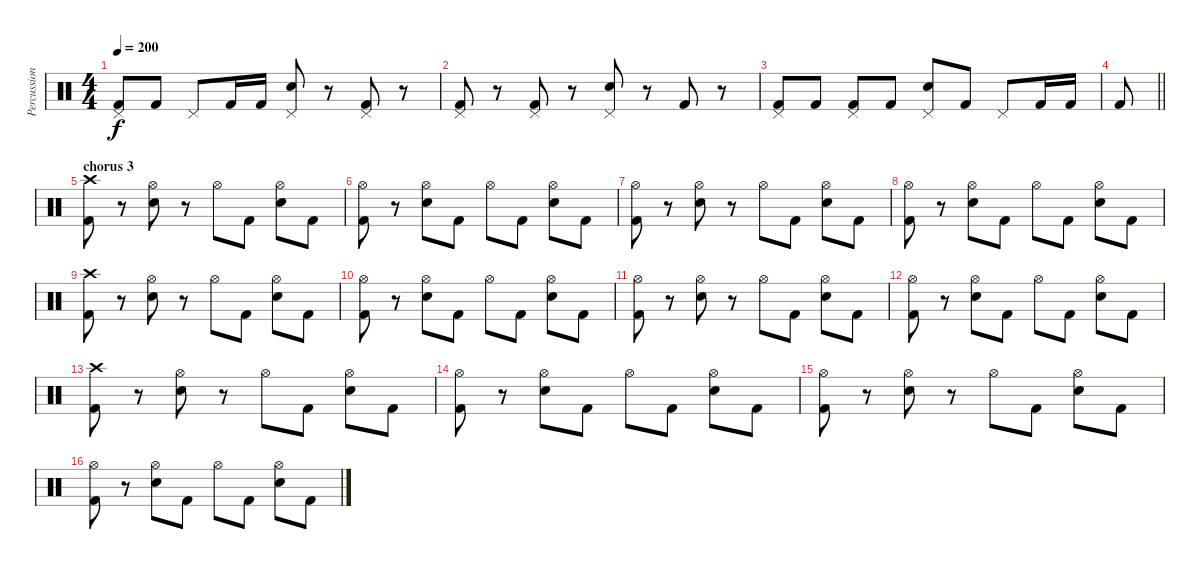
\track ("Percussion" "Percussion") {instrument percussion}
\staff {score}
\articulation defaults
\ts (4 4)
\tempo 200
\clef neutral
\ks c
("Pedal Hi-Hat (hit)" "Kick (hit) 2").8{dy f} "Kick (hit) 2".8 "Pedal Hi-Hat (hit)".8 "Kick (hit) 2".16 "Kick (hit) 2".16 ("Pedal Hi-Hat (hit)" "Snare (hit) 2").8 r.8 ("Pedal Hi-Hat (hit)" "Kick (hit) 2").8 r.8 |
("Pedal Hi-Hat (hit)" "Kick (hit) 2").8 r.8 ("Pedal Hi-Hat (hit)" "Kick (hit) 2").8 r.8 ("Pedal Hi-Hat (hit)" "Snare (hit) 2").8 r.8 "Kick (hit) 2".8 r.8 |
("Pedal Hi-Hat (hit)" "Kick (hit) 2").8 "Kick (hit) 2".8 ("Pedal Hi-Hat (hit)" "Kick (hit) 2").8 "Kick (hit) 2".8 ("Pedal Hi-Hat (hit)" "Snare (hit) 2").8 "Kick (hit) 2".8 "Pedal Hi-Hat (hit)".8 "Kick (hit) 2".16 "Kick (hit) 2".16 |
\barLineRight lightlight "Kick (hit) 2".8
|
\section ("" "chorus 3")
("Crash high (hit)" "Kick (hit) 2").8 r.8 ("Hi-Hat (open)" "Snare (hit) 2").8 r.8 "Hi-Hat (open)".8 "Kick (hit) 2".8 ("Hi-Hat (open)" "Snare (hit) 2").8 "Kick (hit) 2".8 |
("Hi-Hat (open)" "Kick (hit) 2").8 r.8 ("Hi-Hat (open)" "Snare (hit) 2").8 "Kick (hit) 2".8 "Hi-Hat (open)".8 "Kick (hit) 2".8 ("Hi-Hat (open)" "Snare (hit) 2").8 "Kick (hit) 2".8 |
("Hi-Hat (open)" "Kick (hit) 2").8 r.8 ("Hi-Hat (open)" "Snare (hit) 2").8 r.8 "Hi-Hat (open)".8 "Kick (hit) 2".8 ("Hi-Hat (open)" "Snare (hit) 2").8 "Kick (hit) 2".8 |
("Hi-Hat (open)" "Kick (hit) 2").8 r.8 ("Hi-Hat (open)" "Snare (hit) 2").8 "Kick (hit) 2".8 "Hi-Hat (open)".8 "Kick (hit) 2".8 ("Hi-Hat (open)" "Snare (hit) 2").8 "Kick (hit) 2".8 |
("Crash high (hit)" "Kick (hit) 2").8 r.8 ("Hi-Hat (open)" "Snare (hit) 2").8 r.8 "Hi-Hat (open)".8 "Kick (hit) 2".8 ("Hi-Hat (open)" "Snare (hit) 2").8 "Kick (hit) 2".8 |
("Hi-Hat (open)" "Kick (hit) 2").8 r.8 ("Hi-Hat (open)" "Snare (hit) 2").8 "Kick (hit) 2".8 "Hi-Hat (open)".8 "Kick (hit) 2".8 ("Hi-Hat (open)" "Snare (hit) 2").8 "Kick (hit) 2".8 |
("Hi-Hat (open)" "Kick (hit) 2").8 r.8 ("Hi-Hat (open)" "Snare (hit) 2").8 r.8 "Hi-Hat (open)".8 "Kick (hit) 2".8 ("Hi-Hat (open)" "Snare (hit) 2").8 "Kick (hit) 2".8 |
("Hi-Hat (open)" "Kick (hit) 2").8 r.8 ("Hi-Hat (open)" "Snare (hit) 2").8 "Kick (hit) 2".8 "Hi-Hat (open)".8 "Kick (hit) 2".8 ("Hi-Hat (open)" "Snare (hit) 2").8 "Kick (hit) 2".8 |
("Crash high (hit)" "Kick (hit) 2").8 r.8 ("Hi-Hat (open)" "Snare (hit) 2").8 r.8 "Hi-Hat (open)".8 "Kick (hit) 2".8 ("Hi-Hat (open)" "Snare (hit) 2").8 "Kick (hit) 2".8 |
("Hi-Hat (open)" "Kick (hit) 2").8 r.8 ("Hi-Hat (open)" "Snare (hit) 2").8 "Kick (hit) 2".8 "Hi-Hat (open)".8 "Kick (hit) 2".8 ("Hi-Hat (open)" "Snare (hit) 2").8 "Kick (hit) 2".8 |
("Hi-Hat (open)" "Kick (hit) 2").8 r.8 ("Hi-Hat (open)" "Snare (hit) 2").8 r.8 "Hi-Hat (open)".8 "Kick (hit) 2".8 ("Hi-Hat (open)" "Snare (hit) 2").8 "Kick (hit) 2".8 |
("Hi-Hat (open)" "Kick (hit) 2").8 r.8 ("Hi-Hat (open)" "Snare (hit) 2").8 "Kick (hit) 2".8 "Hi-Hat (open)".8 "Kick (hit) 2".8 ("Hi-Hat (open)" "Snare (hit) 2").8 "Kick (hit) 2".8
